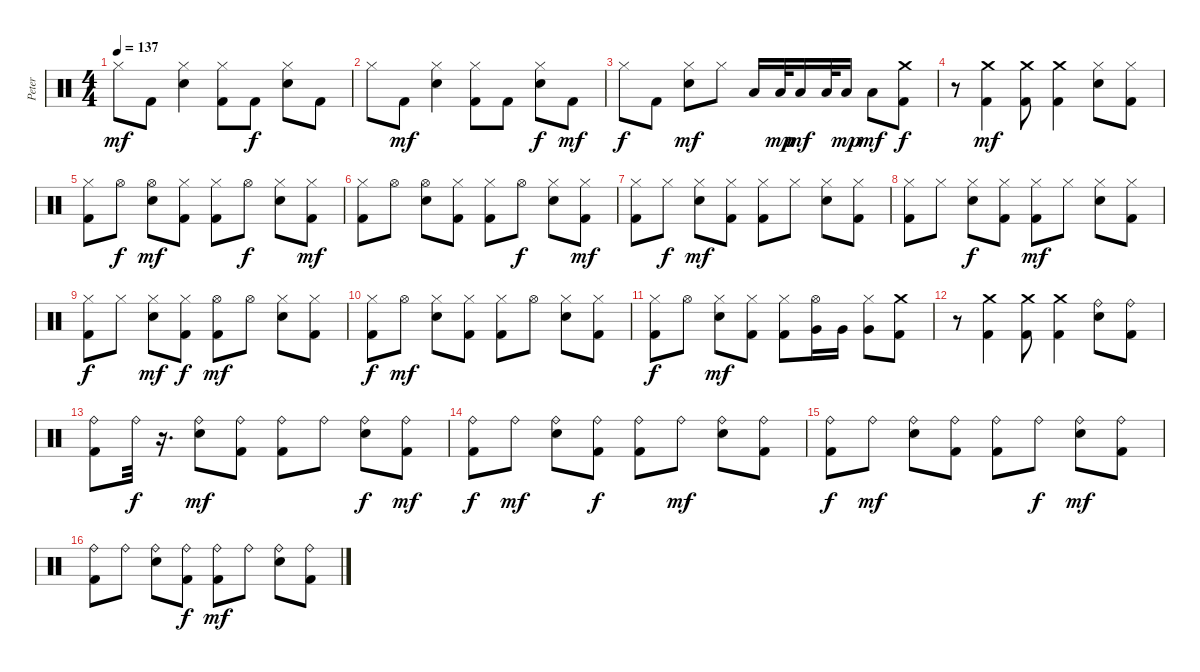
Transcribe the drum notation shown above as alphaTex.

\track ("Peter" "Peter") {instrument percussion}
\staff {score}
\articulation defaults
\ts (4 4)
\tempo 137
\clef neutral
\ks c "Hi-Hat (closed)".8{dy mf} "Kick (hit) 2".8
("Electric Snare (hit)" "Hi-Hat (closed)").4 ("Hi-Hat (closed)" "Kick (hit) 2").8 "Kick (hit) 2".8{dy f} ("Hi-Hat (closed)" "Electric Snare (hit)").8 "Kick (hit) 2".8 |
"Hi-Hat (closed)".8 "Kick (hit) 2".8{dy mf} ("Electric Snare (hit)" "Hi-Hat (closed)").4 ("Kick (hit) 2" "Hi-Hat (closed)").8 "Kick (hit) 2".8 ("Hi-Hat (closed)" "Electric Snare (hit)").8{dy f} "Kick (hit) 2".8{dy mf} |
"Hi-Hat (closed)".8{dy f} "Kick (hit) 2".8 ("Hi-Hat (closed)" "Electric Snare (hit)").8{dy mf} "Hi-Hat (closed)".8 "Low Tom (hit)".16 "Low Tom (hit)".32{dy mp} "Low Tom (hit)".16{dy mf} "Low Tom (hit)".32 "Low Tom (hit)".16{dy mp} "Low Tom (hit)".8{dy mf} ("Crash medium (hit)" "Kick (hit) 2").8{dy f} |
r.8 ("Crash medium (hit)" "Kick (hit) 2").4{dy mf} ("Kick (hit) 2" "Crash medium (hit)").8 ("Kick (hit) 2" "Crash medium (hit)").4 ("Electric Snare (hit)" "Hi-Hat (closed)").8 ("Hi-Hat (closed)" "Kick (hit) 2").8 |
("Hi-Hat (closed)" "Kick (hit) 2").8 "Hi-Hat (open)".8{dy f} ("Electric Snare (hit)" "Hi-Hat (open)").8{dy mf} ("Kick (hit) 2" "Hi-Hat (closed)").8 ("Hi-Hat (closed)" "Kick (hit) 2").8 "Hi-Hat (open)".8{dy f} ("Electric Snare (hit)" "Hi-Hat (closed)").8 ("Hi-Hat (closed)" "Kick (hit) 2").8{dy mf} |
("Kick (hit) 2" "Hi-Hat (closed)").8 "Hi-Hat (open)".8 ("Electric Snare (hit)" "Hi-Hat (open)").8 ("Kick (hit) 2" "Hi-Hat (closed)").8 ("Hi-Hat (closed)" "Kick (hit) 2").8 "Hi-Hat (open)".8{dy f} ("Electric Snare (hit)" "Hi-Hat (closed)").8 ("Kick (hit) 2" "Hi-Hat (closed)").8{dy mf} |
("Hi-Hat (closed)" "Kick (hit) 2").8 "Hi-Hat (closed)".8{dy f} ("Hi-Hat (closed)" "Electric Snare (hit)").8{dy mf} ("Kick (hit) 2" "Hi-Hat (closed)").8 ("Hi-Hat (closed)" "Kick (hit) 2").8 "Hi-Hat (closed)".8 ("Electric Snare (hit)" "Hi-Hat (closed)").8 ("Kick (hit) 2" "Hi-Hat (closed)").8 |
("Hi-Hat (closed)" "Kick (hit) 2").8 "Hi-Hat (closed)".8 ("Hi-Hat (closed)" "Electric Snare (hit)").8{dy f} ("Kick (hit) 2" "Hi-Hat (closed)").8 ("Hi-Hat (closed)" "Kick (hit) 2").8{dy mf} "Hi-Hat (closed)".8 ("Electric Snare (hit)" "Hi-Hat (closed)").8 ("Kick (hit) 2" "Hi-Hat (closed)").8 |
("Hi-Hat (closed)" "Kick (hit) 2").8{dy f} "Hi-Hat (closed)".8 ("Electric Snare (hit)" "Hi-Hat (closed)").8{dy mf} ("Hi-Hat (closed)" "Kick (hit) 2").8{dy f} ("Hi-Hat (open)" "Kick (hit) 2").8{dy mf} "Hi-Hat (open)".8 ("Electric Snare (hit)" "Hi-Hat (closed)").8 ("Kick (hit) 2" "Hi-Hat (closed)").8 |
("Hi-Hat (closed)" "Kick (hit) 2").8{dy f} "Hi-Hat (open)".8{dy mf} ("Electric Snare (hit)" "Hi-Hat (closed)").8 ("Hi-Hat (closed)" "Kick (hit) 2").8 ("Kick (hit) 2" "Hi-Hat (closed)").8 "Hi-Hat (open)".8 ("Electric Snare (hit)" "Hi-Hat (closed)").8 ("Hi-Hat (closed)" "Kick (hit) 2").8 |
("Hi-Hat (closed)" "Kick (hit) 2").8{dy f} "Hi-Hat (open)".8 ("Hi-Hat (closed)" "Electric Snare (hit)").8{dy mf} ("Kick (hit) 2" "Hi-Hat (closed)").8 ("Hi-Hat (closed)" "Kick (hit) 2").8 ("Hi-Hat (open)" "Very Low Tom (hit)").16 "Very Low Tom (hit)".16 ("Hi-Hat (closed)" "Very Low Tom (hit)").8 ("Crash medium (hit)" "Kick (hit) 2").8 |
r.8 ("Kick (hit) 2" "Crash medium (hit)").4 ("Crash medium (hit)" "Kick (hit) 2").8 ("Crash medium (hit)" "Kick (hit) 2").4 ("Ride (bell)" "Electric Snare (hit)").8 ("Kick (hit) 2" "Ride (bell)").8 |
("Ride (bell)" "Kick (hit) 2").8 "Ride (bell)".32{dy f} r.16{d} ("Ride (bell)" "Electric Snare (hit)").8{dy mf} ("Kick (hit) 2" "Ride (bell)").8 ("Ride (bell)" "Kick (hit) 2").8 "Ride (bell)".8 ("Ride (bell)" "Electric Snare (hit)").8{dy f} ("Ride (bell)" "Kick (hit) 2").8{dy mf} |
("Ride (bell)" "Kick (hit) 2").8{dy f} "Ride (bell)".8{dy mf} ("Ride (bell)" "Electric Snare (hit)").8 ("Ride (bell)" "Kick (hit) 2").8{dy f} ("Ride (bell)" "Kick (hit) 2").8 "Ride (bell)".8{dy mf} ("Electric Snare (hit)" "Ride (bell)").8 ("Kick (hit) 2" "Ride (bell)").8 |
("Kick (hit) 2" "Ride (bell)").8{dy f} "Ride (bell)".8{dy mf} ("Electric Snare (hit)" "Ride (bell)").8 ("Ride (bell)" "Kick (hit) 2").8 ("Ride (bell)" "Kick (hit) 2").8 "Ride (bell)".8{dy f} ("Ride (bell)" "Electric Snare (hit)").8{dy mf} ("Kick (hit) 2" "Ride (bell)").8 |
("Ride (bell)" "Kick (hit) 2").8 "Ride (bell)".8 ("Electric Snare (hit)" "Ride (bell)").8 ("Ride (bell)" "Kick (hit) 2").8{dy f} ("Kick (hit) 2" "Ride (bell)").8{dy mf} "Ride (bell)".8 ("Ride (bell)" "Electric Snare (hit)").8 ("Kick (hit) 2" "Ride (bell)").8
